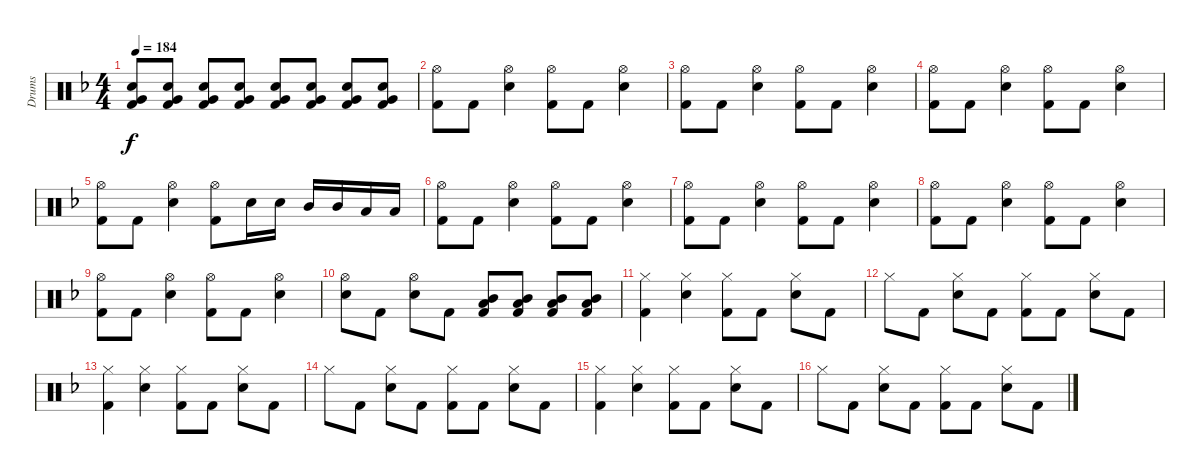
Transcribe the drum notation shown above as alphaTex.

\track ("Drums" "Drums") {instrument percussion}
\staff {score}
\articulation defaults
\ts (4 4)
\tempo 184
\clef neutral
\ks f
("Electric Snare (hit)" "Very Low Tom (hit)" "Kick (hit) 2").8{dy f} ("Electric Snare (hit)" "Very Low Tom (hit)" "Kick (hit) 2").8 ("Electric Snare (hit)" "Very Low Tom (hit)" "Kick (hit) 2").8 ("Electric Snare (hit)" "Very Low Tom (hit)" "Kick (hit) 2").8 ("Electric Snare (hit)" "Very Low Tom (hit)" "Kick (hit) 2").8 ("Electric Snare (hit)" "Very Low Tom (hit)" "Kick (hit) 2").8 ("Electric Snare (hit)" "Very Low Tom (hit)" "Kick (hit) 2").8 ("Electric Snare (hit)" "Very Low Tom (hit)" "Kick (hit) 2").8 |
("Hi-Hat (open)" "Kick (hit) 2").8 "Kick (hit) 2".8 ("Hi-Hat (open)" "Electric Snare (hit)").4 ("Hi-Hat (open)" "Kick (hit) 2").8 "Kick (hit) 2".8 ("Hi-Hat (open)" "Electric Snare (hit)").4 |
("Hi-Hat (open)" "Kick (hit) 2").8 "Kick (hit) 2".8 ("Hi-Hat (open)" "Electric Snare (hit)").4 ("Hi-Hat (open)" "Kick (hit) 2").8 "Kick (hit) 2".8 ("Hi-Hat (open)" "Electric Snare (hit)").4 |
("Hi-Hat (open)" "Kick (hit) 2").8 "Kick (hit) 2".8 ("Hi-Hat (open)" "Electric Snare (hit)").4 ("Hi-Hat (open)" "Kick (hit) 2").8 "Kick (hit) 2".8 ("Hi-Hat (open)" "Electric Snare (hit)").4 |
("Hi-Hat (open)" "Kick (hit) 2").8 "Kick (hit) 2".8 ("Hi-Hat (open)" "Electric Snare (hit)").4 ("Hi-Hat (open)" "Kick (hit) 2").8 "Electric Snare (hit)".16 "Electric Snare (hit)".16 "Mid Tom (hit)".16 "Mid Tom (hit)".16 "Low Tom (hit)".16 "Low Tom (hit)".16 |
("Hi-Hat (open)" "Kick (hit) 2").8 "Kick (hit) 2".8 ("Hi-Hat (open)" "Electric Snare (hit)").4 ("Hi-Hat (open)" "Kick (hit) 2").8 "Kick (hit) 2".8 ("Hi-Hat (open)" "Electric Snare (hit)").4 |
("Hi-Hat (open)" "Kick (hit) 2").8 "Kick (hit) 2".8 ("Hi-Hat (open)" "Electric Snare (hit)").4 ("Hi-Hat (open)" "Kick (hit) 2").8 "Kick (hit) 2".8 ("Hi-Hat (open)" "Electric Snare (hit)").4 |
("Hi-Hat (open)" "Kick (hit) 2").8 "Kick (hit) 2".8 ("Hi-Hat (open)" "Electric Snare (hit)").4 ("Hi-Hat (open)" "Kick (hit) 2").8 "Kick (hit) 2".8 ("Hi-Hat (open)" "Electric Snare (hit)").4 |
("Hi-Hat (open)" "Kick (hit) 2").8 "Kick (hit) 2".8 ("Hi-Hat (open)" "Electric Snare (hit)").4 ("Hi-Hat (open)" "Kick (hit) 2").8 "Kick (hit) 2".8 ("Hi-Hat (open)" "Electric Snare (hit)").4 |
("Hi-Hat (open)" "Electric Snare (hit)").8 "Kick (hit) 2".8 ("Hi-Hat (open)" "Electric Snare (hit)").8 "Kick (hit) 2".8 ("Mid Tom (hit)" "Low Tom (hit)" "Kick (hit) 2").8 ("Mid Tom (hit)" "Low Tom (hit)" "Kick (hit) 2").8 ("Mid Tom (hit)" "Low Tom (hit)" "Kick (hit) 2").8 ("Mid Tom (hit)" "Low Tom (hit)" "Kick (hit) 2").8 |
("Hi-Hat (closed)" "Kick (hit) 2").4 ("Hi-Hat (closed)" "Electric Snare (hit)").4 ("Hi-Hat (closed)" "Kick (hit) 2").8 "Kick (hit) 2".8 ("Hi-Hat (closed)" "Electric Snare (hit)").8 "Kick (hit) 2".8 |
"Hi-Hat (closed)".8 "Kick (hit) 2".8 ("Hi-Hat (closed)" "Electric Snare (hit)").8 "Kick (hit) 2".8 ("Hi-Hat (closed)" "Kick (hit) 2").8 "Kick (hit) 2".8 ("Hi-Hat (closed)" "Electric Snare (hit)").8 "Kick (hit) 2".8 |
("Hi-Hat (closed)" "Kick (hit) 2").4 ("Hi-Hat (closed)" "Electric Snare (hit)").4 ("Hi-Hat (closed)" "Kick (hit) 2").8 "Kick (hit) 2".8 ("Hi-Hat (closed)" "Electric Snare (hit)").8 "Kick (hit) 2".8 |
"Hi-Hat (closed)".8 "Kick (hit) 2".8 ("Hi-Hat (closed)" "Electric Snare (hit)").8 "Kick (hit) 2".8 ("Hi-Hat (closed)" "Kick (hit) 2").8 "Kick (hit) 2".8 ("Hi-Hat (closed)" "Electric Snare (hit)").8 "Kick (hit) 2".8 |
("Hi-Hat (closed)" "Kick (hit) 2").4 ("Hi-Hat (closed)" "Electric Snare (hit)").4 ("Hi-Hat (closed)" "Kick (hit) 2").8 "Kick (hit) 2".8 ("Hi-Hat (closed)" "Electric Snare (hit)").8 "Kick (hit) 2".8 |
"Hi-Hat (closed)".8 "Kick (hit) 2".8 ("Hi-Hat (closed)" "Electric Snare (hit)").8 "Kick (hit) 2".8 ("Hi-Hat (closed)" "Kick (hit) 2").8 "Kick (hit) 2".8 ("Hi-Hat (closed)" "Electric Snare (hit)").8 "Kick (hit) 2".8
